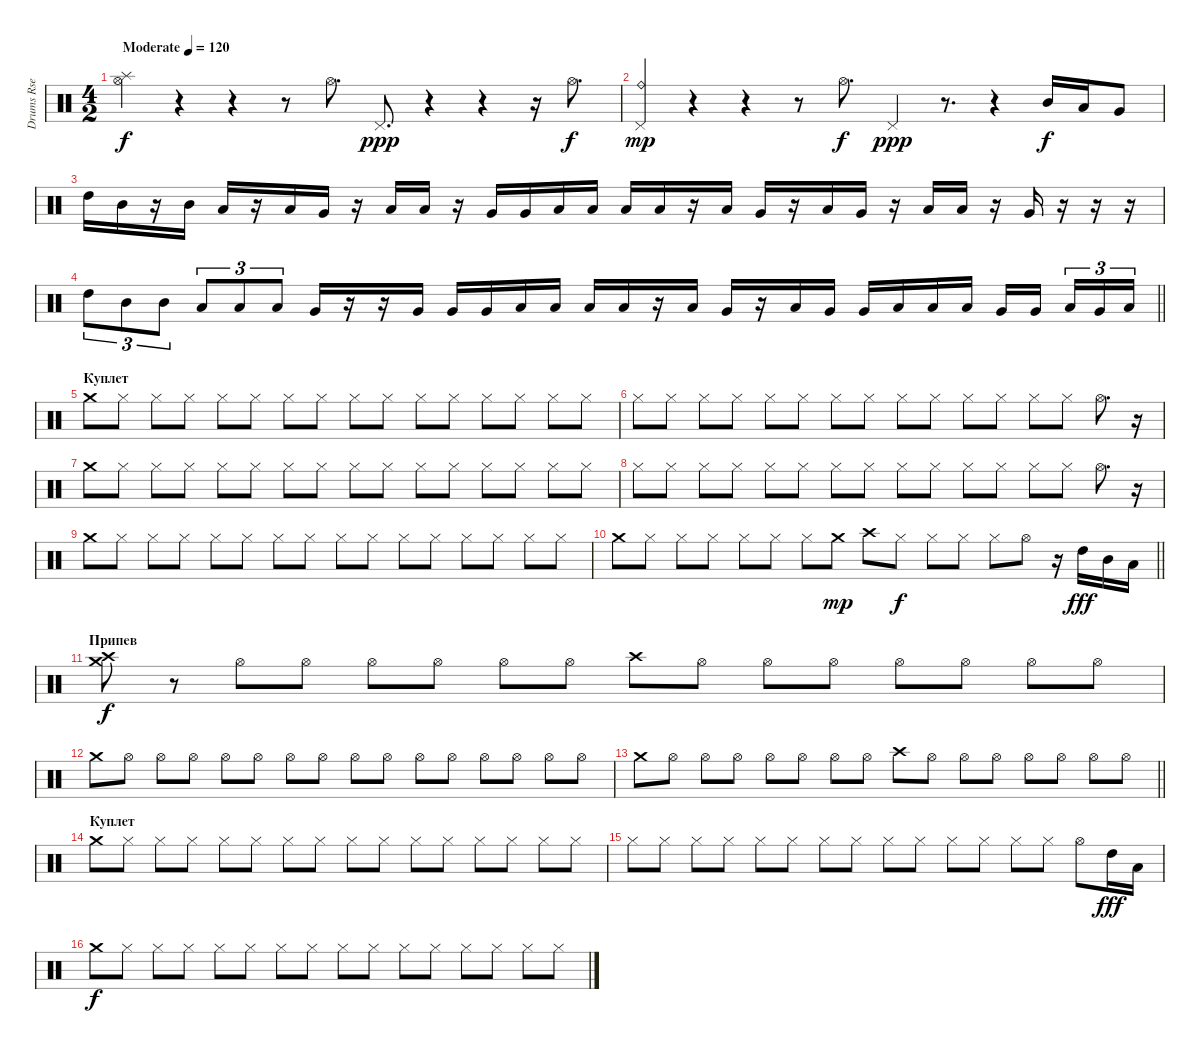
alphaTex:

\track ("Drums Rse" "Drums Rse") {instrument percussion}
\staff {score}
\articulation defaults
\ts (4 2)
\tempo (120 "Moderate")
\clef neutral
\ks c
("Splash (hit)" "Hi-Hat (open)").4{dy f} r.4 r.4 r.8 "Hi-Hat (open)".8{d} "Pedal Hi-Hat (hit)".8{d dy ppp} r.4 r.4 r.16 "Hi-Hat (open)".8{d dy f} |
("Pedal Hi-Hat (hit)" "Ride (bell)").4{dy mp} r.4 r.4 r.8 "Hi-Hat (open)".8{d dy f} "Pedal Hi-Hat (hit)".4{dy ppp} r.8{d} r.4 "Mid Tom (hit)".16{dy f} "Low Tom (hit)".16 "Very Low Tom (hit)".8 |
"High Tom (hit)".16 "Mid Tom (hit)".16 r.16 "Mid Tom (hit)".16 "Low Tom (hit)".16 r.16 "Low Tom (hit)".16 "Very Low Tom (hit)".16 r.16 "Low Tom (hit)".16 "Low Tom (hit)".16 r.16 "Very Low Tom (hit)".16 "Very Low Tom (hit)".16 "Low Floor Tom (hit)".16 "Low Floor Tom (hit)".16 "Low Tom (hit)".16 "Low Tom (hit)".16 r.16 "Low Tom (hit)".16 "Very Low Tom (hit)".16 r.16 "Low Tom (hit)".16 "Very Low Tom (hit)".16 r.16 "Low Tom (hit)".16 "Low Tom (hit)".16 r.16 "Very Low Tom (hit)".16 r.16 r.16 r.16 |
\barLineRight lightlight "High Tom (hit)".8{tu (3 2)} "Mid Tom (hit)".8{tu (3 2)} "Mid Tom (hit)".8{tu (3 2)} "Low Tom (hit)".8{tu (3 2)} "Low Tom (hit)".8{tu (3 2)} "Low Tom (hit)".8{tu (3 2)} "Very Low Tom (hit)".16
r.16 r.16 "Very Low Tom (hit)".16 "Very Low Tom (hit)".16 "Very Low Tom (hit)".16 "Low Floor Tom (hit)".16 "Low Floor Tom (hit)".16 "Low Tom (hit)".16 "Low Tom (hit)".16 r.16 "Low Tom (hit)".16 "Very Low Tom (hit)".16 r.16 "Low Tom (hit)".16 "Very Low Tom (hit)".16 "Very Low Tom (hit)".16 "Low Tom (hit)".16 "Low Tom (hit)".16 "Low Tom (hit)".16 "Very Low Tom (hit)".16 "Very Low Tom (hit)".16{beam splitsecondary} "Low Floor Tom (hit)".16{tu (3 2)} "Very Low Tom (hit)".16{tu (3 2)} "Low Floor Tom (hit)".16{tu (3 2)} |
\section ("" "Куплет")
"Crash medium (hit)".8 "Hi-Hat (closed)".8 "Hi-Hat (closed)".8 "Hi-Hat (closed)".8 "Hi-Hat (closed)".8 "Hi-Hat (closed)".8 "Hi-Hat (closed)".8 "Hi-Hat (closed)".8 "Hi-Hat (closed)".8 "Hi-Hat (closed)".8 "Hi-Hat (closed)".8 "Hi-Hat (closed)".8 "Hi-Hat (closed)".8 "Hi-Hat (closed)".8 "Hi-Hat (closed)".8 "Hi-Hat (closed)".8 |
"Hi-Hat (closed)".8 "Hi-Hat (closed)".8 "Hi-Hat (closed)".8 "Hi-Hat (closed)".8 "Hi-Hat (closed)".8 "Hi-Hat (closed)".8 "Hi-Hat (closed)".8 "Hi-Hat (closed)".8 "Hi-Hat (closed)".8 "Hi-Hat (closed)".8 "Hi-Hat (closed)".8 "Hi-Hat (closed)".8 "Hi-Hat (closed)".8 "Hi-Hat (closed)".8 "Hi-Hat (open)".8{d} r.16 |
"Crash medium (hit)".8 "Hi-Hat (closed)".8 "Hi-Hat (closed)".8 "Hi-Hat (closed)".8 "Hi-Hat (closed)".8 "Hi-Hat (closed)".8 "Hi-Hat (closed)".8 "Hi-Hat (closed)".8 "Hi-Hat (closed)".8 "Hi-Hat (closed)".8 "Hi-Hat (closed)".8 "Hi-Hat (closed)".8 "Hi-Hat (closed)".8 "Hi-Hat (closed)".8 "Hi-Hat (closed)".8 "Hi-Hat (closed)".8 |
"Hi-Hat (closed)".8 "Hi-Hat (closed)".8 "Hi-Hat (closed)".8 "Hi-Hat (closed)".8 "Hi-Hat (closed)".8 "Hi-Hat (closed)".8 "Hi-Hat (closed)".8 "Hi-Hat (closed)".8 "Hi-Hat (closed)".8 "Hi-Hat (closed)".8 "Hi-Hat (closed)".8 "Hi-Hat (closed)".8 "Hi-Hat (closed)".8 "Hi-Hat (closed)".8 "Hi-Hat (open)".8{d} r.16 |
"Crash medium (hit)".8 "Hi-Hat (closed)".8 "Hi-Hat (closed)".8 "Hi-Hat (closed)".8 "Hi-Hat (closed)".8 "Hi-Hat (closed)".8 "Hi-Hat (closed)".8 "Hi-Hat (closed)".8 "Hi-Hat (closed)".8 "Hi-Hat (closed)".8 "Hi-Hat (closed)".8 "Hi-Hat (closed)".8 "Hi-Hat (closed)".8 "Hi-Hat (closed)".8 "Hi-Hat (closed)".8 "Hi-Hat (closed)".8 |
\barLineRight lightlight "Crash medium (hit)".8 "Hi-Hat (closed)".8 "Hi-Hat (closed)".8 "Hi-Hat (closed)".8 "Hi-Hat (closed)".8 "Hi-Hat (closed)".8 "Hi-Hat (closed)".8 "Crash medium (hit)".8{dy mp} "Crash high (hit)".8 "Hi-Hat (closed)".8{dy f} "Hi-Hat (closed)".8 "Hi-Hat (closed)".8 "Hi-Hat (closed)".8 "Hi-Hat (open)".8
r.16 "High Tom (hit)".16{dy fff} "Mid Tom (hit)".16 "Low Tom (hit)".16 |
\section ("" "Припев")
("Crash medium (hit)" "Crash high (hit)").8{dy f} r.8 "Hi-Hat (open)".8 "Hi-Hat (open)".8 "Hi-Hat (open)".8 "Hi-Hat (open)".8 "Hi-Hat (open)".8 "Hi-Hat (open)".8 "Crash high (hit)".8 "Hi-Hat (open)".8 "Hi-Hat (open)".8 "Hi-Hat (open)".8 "Hi-Hat (open)".8 "Hi-Hat (open)".8 "Hi-Hat (open)".8 "Hi-Hat (open)".8 |
"Crash medium (hit)".8 "Hi-Hat (open)".8 "Hi-Hat (open)".8 "Hi-Hat (open)".8 "Hi-Hat (open)".8 "Hi-Hat (open)".8 "Hi-Hat (open)".8 "Hi-Hat (open)".8 "Hi-Hat (open)".8 "Hi-Hat (open)".8 "Hi-Hat (open)".8 "Hi-Hat (open)".8 "Hi-Hat (open)".8 "Hi-Hat (open)".8 "Hi-Hat (open)".8 "Hi-Hat (open)".8 |
\barLineRight lightlight "Crash medium (hit)".8 "Hi-Hat (open)".8 "Hi-Hat (open)".8 "Hi-Hat (open)".8 "Hi-Hat (open)".8 "Hi-Hat (open)".8 "Hi-Hat (open)".8 "Hi-Hat (open)".8 "Crash high (hit)".8 "Hi-Hat (open)".8 "Hi-Hat (open)".8 "Hi-Hat (open)".8 "Hi-Hat (open)".8 "Hi-Hat (open)".8 "Hi-Hat (open)".8 "Hi-Hat (open)".8
|
\section ("" "Куплет")
"Crash medium (hit)".8 "Hi-Hat (closed)".8 "Hi-Hat (closed)".8 "Hi-Hat (closed)".8 "Hi-Hat (closed)".8 "Hi-Hat (closed)".8 "Hi-Hat (closed)".8 "Hi-Hat (closed)".8 "Hi-Hat (closed)".8 "Hi-Hat (closed)".8 "Hi-Hat (closed)".8 "Hi-Hat (closed)".8 "Hi-Hat (closed)".8 "Hi-Hat (closed)".8 "Hi-Hat (closed)".8 "Hi-Hat (closed)".8 |
"Hi-Hat (closed)".8 "Hi-Hat (closed)".8 "Hi-Hat (closed)".8 "Hi-Hat (closed)".8 "Hi-Hat (closed)".8 "Hi-Hat (closed)".8 "Hi-Hat (closed)".8 "Hi-Hat (closed)".8 "Hi-Hat (closed)".8 "Hi-Hat (closed)".8 "Hi-Hat (closed)".8 "Hi-Hat (closed)".8 "Hi-Hat (closed)".8 "Hi-Hat (closed)".8 "Hi-Hat (open)".8 "High Tom (hit)".16{dy fff} "Low Tom (hit)".16 |
"Crash medium (hit)".8{dy f} "Hi-Hat (closed)".8 "Hi-Hat (closed)".8 "Hi-Hat (closed)".8 "Hi-Hat (closed)".8 "Hi-Hat (closed)".8 "Hi-Hat (closed)".8 "Hi-Hat (closed)".8 "Hi-Hat (closed)".8 "Hi-Hat (closed)".8 "Hi-Hat (closed)".8 "Hi-Hat (closed)".8 "Hi-Hat (closed)".8 "Hi-Hat (closed)".8 "Hi-Hat (closed)".8 "Hi-Hat (closed)".8
